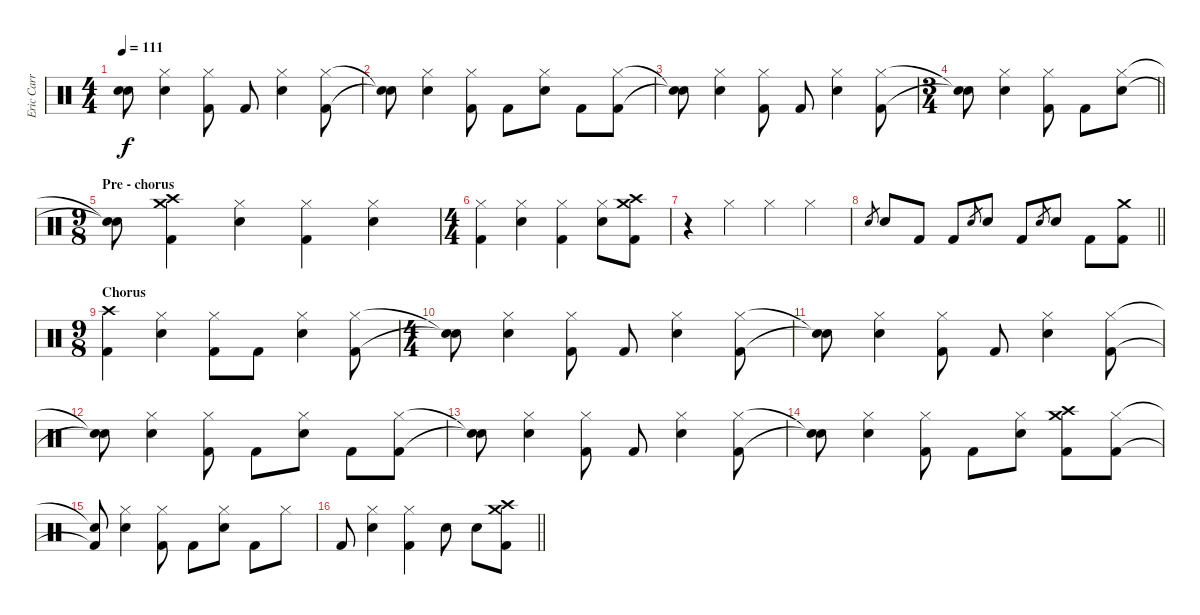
\track ("Eric Carr" "Eric Carr") {instrument percussion}
\staff {score}
\articulation defaults
\ts (4 4)
\tempo 111
\clef neutral
\ks c
("Snare (hit)"{t} "Snare (hit)"{t}).8{dy f} ("Hi-Hat (closed)" "Snare (hit) 2").4 ("Hi-Hat (closed)" "Kick (hit) 2").8 "Kick (hit) 2".8 ("Hi-Hat (closed)" "Snare (hit) 2").4 ("Hi-Hat (closed)" "Kick (hit) 2").8 |
("Snare (hit)"{t} "Snare (hit)"{t}).8 ("Hi-Hat (closed)" "Snare (hit) 2").4 ("Hi-Hat (closed)" "Kick (hit) 2").8 "Kick (hit) 2".8 ("Hi-Hat (closed)" "Snare (hit) 2").8 "Kick (hit) 2".8 ("Hi-Hat (closed)" "Kick (hit) 2").8 |
("Snare (hit)"{t} "Snare (hit)"{t}).8 ("Hi-Hat (closed)" "Snare (hit) 2").4 ("Hi-Hat (closed)" "Kick (hit) 2").8 "Kick (hit) 2".8 ("Hi-Hat (closed)" "Snare (hit) 2").4 ("Hi-Hat (closed)" "Kick (hit) 2").8 |
\ts (3 4)
\barLineRight lightlight
("Snare (hit)"{t} "Snare (hit)"{t}).8 ("Hi-Hat (closed)" "Snare (hit) 2").4 ("Hi-Hat (closed)" "Kick (hit) 2").8 "Kick (hit) 2".8 ("Hi-Hat (closed)" "Snare (hit) 2").8 |
\ts (9 8)
\section ("" "Pre - chorus")
("Snare (hit)"{t} "Snare (hit)"{t}).8 ("Crash medium (hit)" "Crash high (hit)" "Kick (hit) 2").4 ("Hi-Hat (closed)" "Snare (hit) 2").4 ("Hi-Hat (closed)" "Kick (hit) 2").4 ("Hi-Hat (closed)" "Snare (hit) 2").4 |
\ts (4 4)
("Hi-Hat (closed)" "Kick (hit) 2").4 ("Hi-Hat (closed)" "Snare (hit) 2").4 ("Hi-Hat (closed)" "Kick (hit) 2").4 ("Hi-Hat (closed)" "Snare (hit) 2").8 ("Crash medium (hit)" "Crash high (hit)" "Kick (hit) 2").8 |
r.4 "Hi-Hat (closed)".4 "Hi-Hat (closed)".4 "Hi-Hat (closed)".4 |
\barLineRight lightlight "Snare (hit) 2".8{gr} "Snare (hit) 2".8 "Kick (hit) 2".8 "Kick (hit) 2".8 "Snare (hit) 2".8{gr} "Snare (hit) 2".8 "Kick (hit) 2".8 "Snare (hit) 2".8{gr} "Snare (hit) 2".8 "Kick (hit) 2".8
("Crash medium (hit)" "Kick (hit) 2").8 |
\ts (9 8)
\section ("" "Chorus")
("Crash high (hit)" "Kick (hit) 2").4 ("Hi-Hat (closed)" "Snare (hit) 2").4 ("Hi-Hat (closed)" "Kick (hit) 2").8 "Kick (hit) 2".8 ("Hi-Hat (closed)" "Snare (hit) 2").4 ("Hi-Hat (closed)" "Kick (hit) 2").8 |
\ts (4 4)
("Snare (hit)"{t} "Snare (hit)"{t}).8 ("Hi-Hat (closed)" "Snare (hit) 2").4 ("Hi-Hat (closed)" "Kick (hit) 2").8 "Kick (hit) 2".8 ("Hi-Hat (closed)" "Snare (hit) 2").4 ("Hi-Hat (closed)" "Kick (hit) 2").8 |
("Snare (hit)"{t} "Snare (hit)"{t}).8 ("Hi-Hat (closed)" "Snare (hit) 2").4 ("Hi-Hat (closed)" "Kick (hit) 2").8 "Kick (hit) 2".8 ("Hi-Hat (closed)" "Snare (hit) 2").4 ("Hi-Hat (closed)" "Kick (hit) 2").8 |
("Snare (hit)"{t} "Snare (hit)"{t}).8 ("Hi-Hat (closed)" "Snare (hit) 2").4 ("Hi-Hat (closed)" "Kick (hit) 2").8 "Kick (hit) 2".8 ("Hi-Hat (closed)" "Snare (hit) 2").8 "Kick (hit) 2".8 ("Hi-Hat (closed)" "Kick (hit) 2").8 |
("Snare (hit)"{t} "Snare (hit)"{t}).8 ("Hi-Hat (closed)" "Snare (hit) 2").4 ("Hi-Hat (closed)" "Kick (hit) 2").8 "Kick (hit) 2".8 ("Hi-Hat (closed)" "Snare (hit) 2").4 ("Hi-Hat (closed)" "Kick (hit) 2").8 |
("Snare (hit)"{t} "Snare (hit)"{t}).8 ("Hi-Hat (closed)" "Snare (hit) 2").4 ("Hi-Hat (closed)" "Kick (hit) 2").8 "Kick (hit) 2".8 ("Hi-Hat (closed)" "Snare (hit) 2").8 ("Crash medium (hit)" "Crash high (hit)" "Kick (hit) 2").8 ("Hi-Hat (closed)" "Kick (hit) 2").8 |
("Snare (hit)"{t} "Kick (hit) 2"{t}).8 ("Hi-Hat (closed)" "Snare (hit) 2").4 ("Hi-Hat (closed)" "Kick (hit) 2").8 "Kick (hit) 2".8 ("Hi-Hat (closed)" "Snare (hit) 2").8 "Kick (hit) 2".8 "Hi-Hat (closed)".8 |
\barLineRight lightlight "Kick (hit) 2".8
("Hi-Hat (closed)" "Snare (hit) 2").4 ("Hi-Hat (closed)" "Kick (hit) 2").4 "Snare (hit) 2".8 "Snare (hit) 2".8 ("Crash medium (hit)" "Crash high (hit)" "Kick (hit) 2").8
